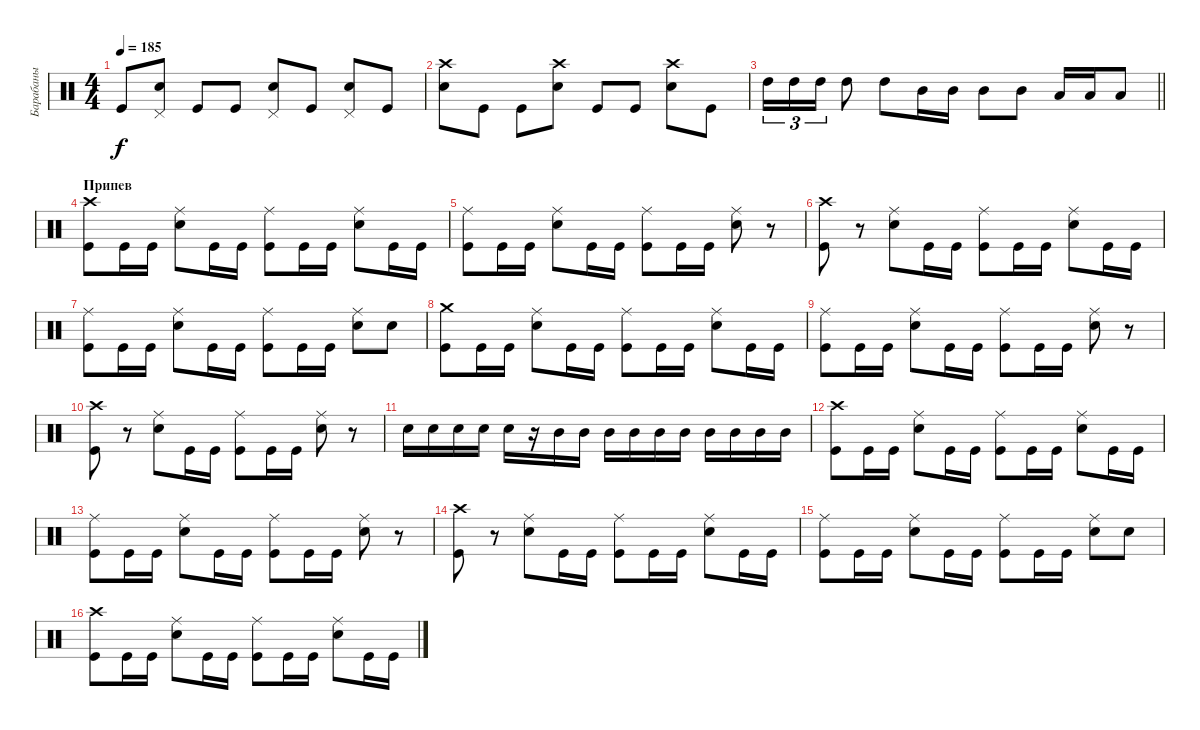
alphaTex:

\track ("Барабаны" "Барабаны") {instrument percussion}
\staff {score}
\articulation defaults
\ts (4 4)
\tempo 185
\clef neutral
\ks c "Kick (hit)".8{dy f}
("Snare (hit) 2" "Pedal Hi-Hat (hit)").8 "Kick (hit)".8 "Kick (hit)".8 ("Snare (hit) 2" "Pedal Hi-Hat (hit)").8 "Kick (hit)".8 ("Snare (hit) 2" "Pedal Hi-Hat (hit)").8 "Kick (hit)".8 |
("Snare (hit) 2" "Crash high (hit)").8 "Kick (hit)".8 "Kick (hit)".8 ("Snare (hit) 2" "Crash high (hit)").8 "Kick (hit)".8 "Kick (hit)".8 ("Snare (hit) 2" "Crash high (hit)").8 "Kick (hit)".8 |
\barLineRight lightlight "High Tom (hit)".16{tu (3 2)} "High Tom (hit)".16{tu (3 2)} "High Tom (hit)".16{tu (3 2)} "High Tom (hit)".8 "High Tom (hit)".8 "Mid Tom (hit)".16 "Mid Tom (hit)".16 "Mid Tom (hit)".8 "Mid Tom (hit)".8 "Low Tom (hit)".16 "Low Tom (hit)".16 "Low Tom (hit)".8
|
\section ("" "Припев")
("Kick (hit)" "Crash high (hit)").8 "Kick (hit)".16 "Kick (hit)".16 ("Snare (hit) 2" "Ride (middle)").8 "Kick (hit)".16 "Kick (hit)".16 ("Kick (hit)" "Ride (middle)").8 "Kick (hit)".16 "Kick (hit)".16 ("Snare (hit) 2" "Ride (middle)").8 "Kick (hit)".16 "Kick (hit)".16 |
("Kick (hit)" "Ride (middle)").8 "Kick (hit)".16 "Kick (hit)".16 ("Snare (hit) 2" "Ride (middle)").8 "Kick (hit)".16 "Kick (hit)".16 ("Kick (hit)" "Ride (middle)").8 "Kick (hit)".16 "Kick (hit)".16 ("Snare (hit) 2" "Ride (middle)").8 r.8 |
("Kick (hit)" "Crash high (hit)").8 r.8 ("Snare (hit) 2" "Ride (middle)").8 "Kick (hit)".16 "Kick (hit)".16 ("Kick (hit)" "Ride (middle)").8 "Kick (hit)".16 "Kick (hit)".16 ("Snare (hit) 2" "Ride (middle)").8 "Kick (hit)".16 "Kick (hit)".16 |
("Kick (hit)" "Ride (middle)").8 "Kick (hit)".16 "Kick (hit)".16 ("Snare (hit) 2" "Ride (middle)").8 "Kick (hit)".16 "Kick (hit)".16 ("Kick (hit)" "Ride (middle)").8 "Kick (hit)".16 "Kick (hit)".16 ("Snare (hit) 2" "Ride (middle)").8 "Snare (hit) 2".8 |
("Kick (hit)" "Crash medium (hit)").8 "Kick (hit)".16 "Kick (hit)".16 ("Snare (hit) 2" "Ride (middle)").8 "Kick (hit)".16 "Kick (hit)".16 ("Kick (hit)" "Ride (middle)").8 "Kick (hit)".16 "Kick (hit)".16 ("Snare (hit) 2" "Ride (middle)").8 "Kick (hit)".16 "Kick (hit)".16 |
("Kick (hit)" "Ride (middle)").8 "Kick (hit)".16 "Kick (hit)".16 ("Snare (hit) 2" "Ride (middle)").8 "Kick (hit)".16 "Kick (hit)".16 ("Kick (hit)" "Ride (middle)").8 "Kick (hit)".16 "Kick (hit)".16 ("Snare (hit) 2" "Ride (middle)").8 r.8 |
("Kick (hit)" "Crash high (hit)").8 r.8 ("Snare (hit) 2" "Ride (middle)").8 "Kick (hit)".16 "Kick (hit)".16 ("Kick (hit)" "Ride (middle)").8 "Kick (hit)".16 "Kick (hit)".16 ("Snare (hit) 2" "Ride (middle)").8 r.8 |
"Snare (hit) 2".16 "Snare (hit) 2".16 "Snare (hit) 2".16 "Snare (hit) 2".16 "Snare (hit) 2".16 r.16 "Mid Tom (hit)".16 "Mid Tom (hit)".16 "Mid Tom (hit)".16 "Mid Tom (hit)".16 "Mid Tom (hit)".16 "Mid Tom (hit)".16 "Mid Tom (hit)".16 "Mid Tom (hit)".16 "Mid Tom (hit)".16 "Mid Tom (hit)".16 |
("Kick (hit)" "Crash high (hit)").8 "Kick (hit)".16 "Kick (hit)".16 ("Snare (hit) 2" "Ride (middle)").8 "Kick (hit)".16 "Kick (hit)".16 ("Kick (hit)" "Ride (middle)").8 "Kick (hit)".16 "Kick (hit)".16 ("Snare (hit) 2" "Ride (middle)").8 "Kick (hit)".16 "Kick (hit)".16 |
("Kick (hit)" "Ride (middle)").8 "Kick (hit)".16 "Kick (hit)".16 ("Snare (hit) 2" "Ride (middle)").8 "Kick (hit)".16 "Kick (hit)".16 ("Kick (hit)" "Ride (middle)").8 "Kick (hit)".16 "Kick (hit)".16 ("Snare (hit) 2" "Ride (middle)").8 r.8 |
("Kick (hit)" "Crash high (hit)").8 r.8 ("Snare (hit) 2" "Ride (middle)").8 "Kick (hit)".16 "Kick (hit)".16 ("Kick (hit)" "Ride (middle)").8 "Kick (hit)".16 "Kick (hit)".16 ("Snare (hit) 2" "Ride (middle)").8 "Kick (hit)".16 "Kick (hit)".16 |
("Kick (hit)" "Ride (middle)").8 "Kick (hit)".16 "Kick (hit)".16 ("Snare (hit) 2" "Ride (middle)").8 "Kick (hit)".16 "Kick (hit)".16 ("Kick (hit)" "Ride (middle)").8 "Kick (hit)".16 "Kick (hit)".16 ("Snare (hit) 2" "Ride (middle)").8 "Snare (hit) 2".8 |
("Kick (hit)" "Crash high (hit)").8 "Kick (hit)".16 "Kick (hit)".16 ("Snare (hit) 2" "Ride (middle)").8 "Kick (hit)".16 "Kick (hit)".16 ("Kick (hit)" "Ride (middle)").8 "Kick (hit)".16 "Kick (hit)".16 ("Snare (hit) 2" "Ride (middle)").8 "Kick (hit)".16 "Kick (hit)".16
